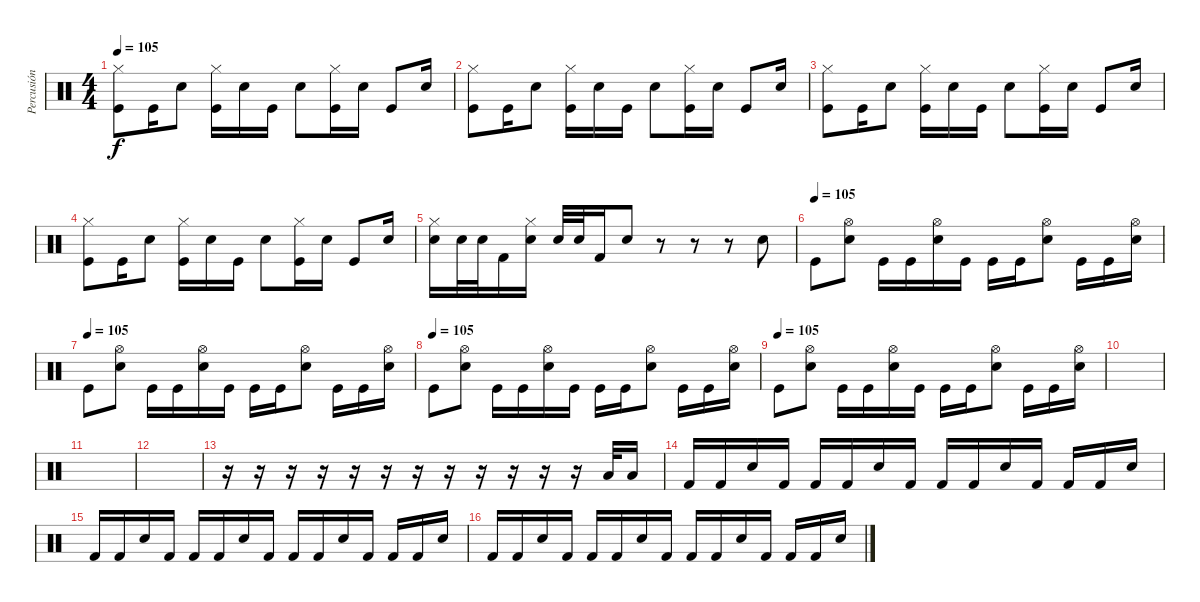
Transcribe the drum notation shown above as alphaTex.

\track ("Percusión" "Percusión") {instrument percussion}
\staff {score}
\articulation defaults
\ts (4 4)
\tempo 105
\clef neutral
\ks c
("Kick (hit)" "Hi-Hat (closed)").8{dy f} "Kick (hit)".16 "Electric Snare (hit)".8 ("Kick (hit)" "Hi-Hat (closed)").16 "Electric Snare (hit)".16 "Kick (hit)".16 "Electric Snare (hit)".8 ("Kick (hit)" "Hi-Hat (closed)").16 "Electric Snare (hit)".16 "Kick (hit)".8 "Electric Snare (hit)".16 |
("Kick (hit)" "Hi-Hat (closed)").8 "Kick (hit)".16 "Electric Snare (hit)".8 ("Kick (hit)" "Hi-Hat (closed)").16 "Electric Snare (hit)".16 "Kick (hit)".16 "Electric Snare (hit)".8 ("Kick (hit)" "Hi-Hat (closed)").16 "Electric Snare (hit)".16 "Kick (hit)".8 "Electric Snare (hit)".16 |
("Kick (hit)" "Hi-Hat (closed)").8 "Kick (hit)".16 "Electric Snare (hit)".8 ("Kick (hit)" "Hi-Hat (closed)").16 "Electric Snare (hit)".16 "Kick (hit)".16 "Electric Snare (hit)".8 ("Kick (hit)" "Hi-Hat (closed)").16 "Electric Snare (hit)".16 "Kick (hit)".8 "Electric Snare (hit)".16 |
("Kick (hit)" "Hi-Hat (closed)").8 "Kick (hit)".16 "Electric Snare (hit)".8 ("Kick (hit)" "Hi-Hat (closed)").16 "Electric Snare (hit)".16 "Kick (hit)".16 "Electric Snare (hit)".8 ("Kick (hit)" "Hi-Hat (closed)").16 "Electric Snare (hit)".16 "Kick (hit)".8 "Electric Snare (hit)".16 |
("Electric Snare (hit)" "Hi-Hat (closed)").16 "Electric Snare (hit)".32 "Electric Snare (hit)".32 "Kick (hit) 2".16 ("Electric Snare (hit)" "Hi-Hat (closed)").16 "Electric Snare (hit)".32 "Electric Snare (hit)".32 "Kick (hit) 2".16 "Electric Snare (hit)".8 r.8 r.8 r.8 "Electric Snare (hit)".8 |
\tempo (105)
"Kick (hit)".8 ("Electric Snare (hit)" "Hi-Hat (open)").8 "Kick (hit)".16 "Kick (hit)".16 ("Electric Snare (hit)" "Hi-Hat (open)").16 "Kick (hit)".16 "Kick (hit)".16 "Kick (hit)".16 ("Electric Snare (hit)" "Hi-Hat (open)").8 "Kick (hit)".16 "Kick (hit)".16 ("Electric Snare (hit)" "Hi-Hat (open)").16 |
\tempo (105)
"Kick (hit)".8 ("Electric Snare (hit)" "Hi-Hat (open)").8 "Kick (hit)".16 "Kick (hit)".16 ("Electric Snare (hit)" "Hi-Hat (open)").16 "Kick (hit)".16 "Kick (hit)".16 "Kick (hit)".16 ("Electric Snare (hit)" "Hi-Hat (open)").8 "Kick (hit)".16 "Kick (hit)".16 ("Electric Snare (hit)" "Hi-Hat (open)").16 |
\tempo (105)
"Kick (hit)".8 ("Electric Snare (hit)" "Hi-Hat (open)").8 "Kick (hit)".16 "Kick (hit)".16 ("Electric Snare (hit)" "Hi-Hat (open)").16 "Kick (hit)".16 "Kick (hit)".16 "Kick (hit)".16 ("Electric Snare (hit)" "Hi-Hat (open)").8 "Kick (hit)".16 "Kick (hit)".16 ("Electric Snare (hit)" "Hi-Hat (open)").16 |
\tempo (105)
"Kick (hit)".8 ("Electric Snare (hit)" "Hi-Hat (open)").8 "Kick (hit)".16 "Kick (hit)".16 ("Electric Snare (hit)" "Hi-Hat (open)").16 "Kick (hit)".16 "Kick (hit)".16 "Kick (hit)".16 ("Electric Snare (hit)" "Hi-Hat (open)").8 "Kick (hit)".16 "Kick (hit)".16 ("Electric Snare (hit)" "Hi-Hat (open)").16 |
|
|
|
r.16 r.16 r.16 r.16 r.16 r.16 r.16 r.16 r.16 r.16 r.16 r.16 "Low Floor Tom (hit)".32 "Low Floor Tom (hit)".16 |
"Kick (hit) 2".16 "Kick (hit) 2".16 "Electric Snare (hit)".16 "Kick (hit) 2".16 "Kick (hit) 2".16 "Kick (hit) 2".16 "Electric Snare (hit)".16 "Kick (hit) 2".16 "Kick (hit) 2".16 "Kick (hit) 2".16 "Electric Snare (hit)".16 "Kick (hit) 2".16 "Kick (hit) 2".16 "Kick (hit) 2".16 "Electric Snare (hit)".16 |
"Kick (hit) 2".16 "Kick (hit) 2".16 "Electric Snare (hit)".16 "Kick (hit) 2".16 "Kick (hit) 2".16 "Kick (hit) 2".16 "Electric Snare (hit)".16 "Kick (hit) 2".16 "Kick (hit) 2".16 "Kick (hit) 2".16 "Electric Snare (hit)".16 "Kick (hit) 2".16 "Kick (hit) 2".16 "Kick (hit) 2".16 "Electric Snare (hit)".16 |
"Kick (hit) 2".16 "Kick (hit) 2".16 "Electric Snare (hit)".16 "Kick (hit) 2".16 "Kick (hit) 2".16 "Kick (hit) 2".16 "Electric Snare (hit)".16 "Kick (hit) 2".16 "Kick (hit) 2".16 "Kick (hit) 2".16 "Electric Snare (hit)".16 "Kick (hit) 2".16 "Kick (hit) 2".16 "Kick (hit) 2".16 "Electric Snare (hit)".16
